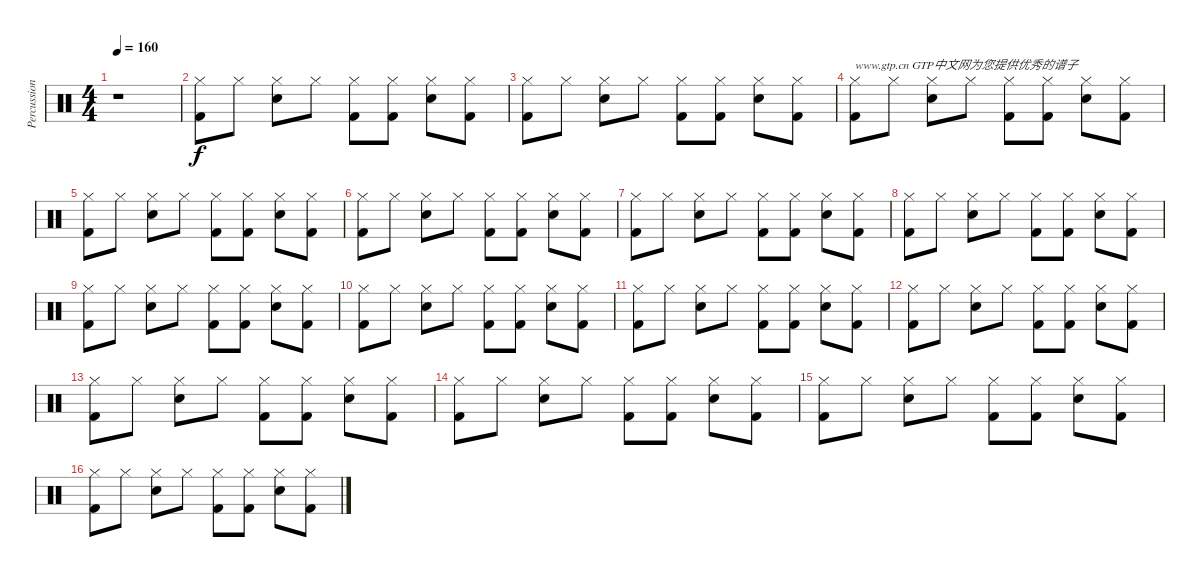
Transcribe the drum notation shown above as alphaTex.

\track ("Percussion" "Percussion") {instrument percussion}
\staff {score}
\articulation defaults
\ts (4 4)
\tempo 160
\clef neutral
\ks c
r.1{dy f} |
("Hi-Hat (closed)" "Kick (hit) 2").8 "Hi-Hat (closed)".8 ("Hi-Hat (closed)" "Snare (hit) 2").8 "Hi-Hat (closed)".8 ("Hi-Hat (closed)" "Kick (hit) 2").8 ("Hi-Hat (closed)" "Kick (hit) 2").8 ("Hi-Hat (closed)" "Snare (hit) 2").8 ("Hi-Hat (closed)" "Kick (hit) 2").8 |
("Hi-Hat (closed)" "Kick (hit) 2").8 "Hi-Hat (closed)".8 ("Hi-Hat (closed)" "Snare (hit) 2").8 "Hi-Hat (closed)".8 ("Hi-Hat (closed)" "Kick (hit) 2").8 ("Hi-Hat (closed)" "Kick (hit) 2").8 ("Hi-Hat (closed)" "Snare (hit) 2").8 ("Hi-Hat (closed)" "Kick (hit) 2").8 |
("Hi-Hat (closed)" "Kick (hit) 2").8{txt "www.gtp.cn GTP中文网为您提供优秀的谱子"} "Hi-Hat (closed)".8 ("Hi-Hat (closed)" "Snare (hit) 2").8 "Hi-Hat (closed)".8 ("Hi-Hat (closed)" "Kick (hit) 2").8 ("Hi-Hat (closed)" "Kick (hit) 2").8 ("Hi-Hat (closed)" "Snare (hit) 2").8 ("Hi-Hat (closed)" "Kick (hit) 2").8 |
("Hi-Hat (closed)" "Kick (hit) 2").8 "Hi-Hat (closed)".8 ("Hi-Hat (closed)" "Snare (hit) 2").8 "Hi-Hat (closed)".8 ("Hi-Hat (closed)" "Kick (hit) 2").8 ("Hi-Hat (closed)" "Kick (hit) 2").8 ("Hi-Hat (closed)" "Snare (hit) 2").8 ("Hi-Hat (closed)" "Kick (hit) 2").8 |
("Hi-Hat (closed)" "Kick (hit) 2").8 "Hi-Hat (closed)".8 ("Hi-Hat (closed)" "Snare (hit) 2").8 "Hi-Hat (closed)".8 ("Hi-Hat (closed)" "Kick (hit) 2").8 ("Hi-Hat (closed)" "Kick (hit) 2").8 ("Hi-Hat (closed)" "Snare (hit) 2").8 ("Hi-Hat (closed)" "Kick (hit) 2").8 |
("Hi-Hat (closed)" "Kick (hit) 2").8 "Hi-Hat (closed)".8 ("Hi-Hat (closed)" "Snare (hit) 2").8 "Hi-Hat (closed)".8 ("Hi-Hat (closed)" "Kick (hit) 2").8 ("Hi-Hat (closed)" "Kick (hit) 2").8 ("Hi-Hat (closed)" "Snare (hit) 2").8 ("Hi-Hat (closed)" "Kick (hit) 2").8 |
("Hi-Hat (closed)" "Kick (hit) 2").8 "Hi-Hat (closed)".8 ("Hi-Hat (closed)" "Snare (hit) 2").8 "Hi-Hat (closed)".8 ("Hi-Hat (closed)" "Kick (hit) 2").8 ("Hi-Hat (closed)" "Kick (hit) 2").8 ("Hi-Hat (closed)" "Snare (hit) 2").8 ("Hi-Hat (closed)" "Kick (hit) 2").8 |
("Hi-Hat (closed)" "Kick (hit) 2").8 "Hi-Hat (closed)".8 ("Hi-Hat (closed)" "Snare (hit) 2").8 "Hi-Hat (closed)".8 ("Hi-Hat (closed)" "Kick (hit) 2").8 ("Hi-Hat (closed)" "Kick (hit) 2").8 ("Hi-Hat (closed)" "Snare (hit) 2").8 ("Hi-Hat (closed)" "Kick (hit) 2").8 |
("Hi-Hat (closed)" "Kick (hit) 2").8 "Hi-Hat (closed)".8 ("Hi-Hat (closed)" "Snare (hit) 2").8 "Hi-Hat (closed)".8 ("Hi-Hat (closed)" "Kick (hit) 2").8 ("Hi-Hat (closed)" "Kick (hit) 2").8 ("Hi-Hat (closed)" "Snare (hit) 2").8 ("Hi-Hat (closed)" "Kick (hit) 2").8 |
("Hi-Hat (closed)" "Kick (hit) 2").8 "Hi-Hat (closed)".8 ("Hi-Hat (closed)" "Snare (hit) 2").8 "Hi-Hat (closed)".8 ("Hi-Hat (closed)" "Kick (hit) 2").8 ("Hi-Hat (closed)" "Kick (hit) 2").8 ("Hi-Hat (closed)" "Snare (hit) 2").8 ("Hi-Hat (closed)" "Kick (hit) 2").8 |
("Hi-Hat (closed)" "Kick (hit) 2").8 "Hi-Hat (closed)".8 ("Hi-Hat (closed)" "Snare (hit) 2").8 "Hi-Hat (closed)".8 ("Hi-Hat (closed)" "Kick (hit) 2").8 ("Hi-Hat (closed)" "Kick (hit) 2").8 ("Hi-Hat (closed)" "Snare (hit) 2").8 ("Hi-Hat (closed)" "Kick (hit) 2").8 |
("Hi-Hat (closed)" "Kick (hit) 2").8 "Hi-Hat (closed)".8 ("Hi-Hat (closed)" "Snare (hit) 2").8 "Hi-Hat (closed)".8 ("Hi-Hat (closed)" "Kick (hit) 2").8 ("Hi-Hat (closed)" "Kick (hit) 2").8 ("Hi-Hat (closed)" "Snare (hit) 2").8 ("Hi-Hat (closed)" "Kick (hit) 2").8 |
("Hi-Hat (closed)" "Kick (hit) 2").8 "Hi-Hat (closed)".8 ("Hi-Hat (closed)" "Snare (hit) 2").8 "Hi-Hat (closed)".8 ("Hi-Hat (closed)" "Kick (hit) 2").8 ("Hi-Hat (closed)" "Kick (hit) 2").8 ("Hi-Hat (closed)" "Snare (hit) 2").8 ("Hi-Hat (closed)" "Kick (hit) 2").8 |
("Hi-Hat (closed)" "Kick (hit) 2").8 "Hi-Hat (closed)".8 ("Hi-Hat (closed)" "Snare (hit) 2").8 "Hi-Hat (closed)".8 ("Hi-Hat (closed)" "Kick (hit) 2").8 ("Hi-Hat (closed)" "Kick (hit) 2").8 ("Hi-Hat (closed)" "Snare (hit) 2").8 ("Hi-Hat (closed)" "Kick (hit) 2").8 |
("Hi-Hat (closed)" "Kick (hit) 2").8 "Hi-Hat (closed)".8 ("Hi-Hat (closed)" "Snare (hit) 2").8 "Hi-Hat (closed)".8 ("Hi-Hat (closed)" "Kick (hit) 2").8 ("Hi-Hat (closed)" "Kick (hit) 2").8 ("Hi-Hat (closed)" "Snare (hit) 2").8 ("Hi-Hat (closed)" "Kick (hit) 2").8
